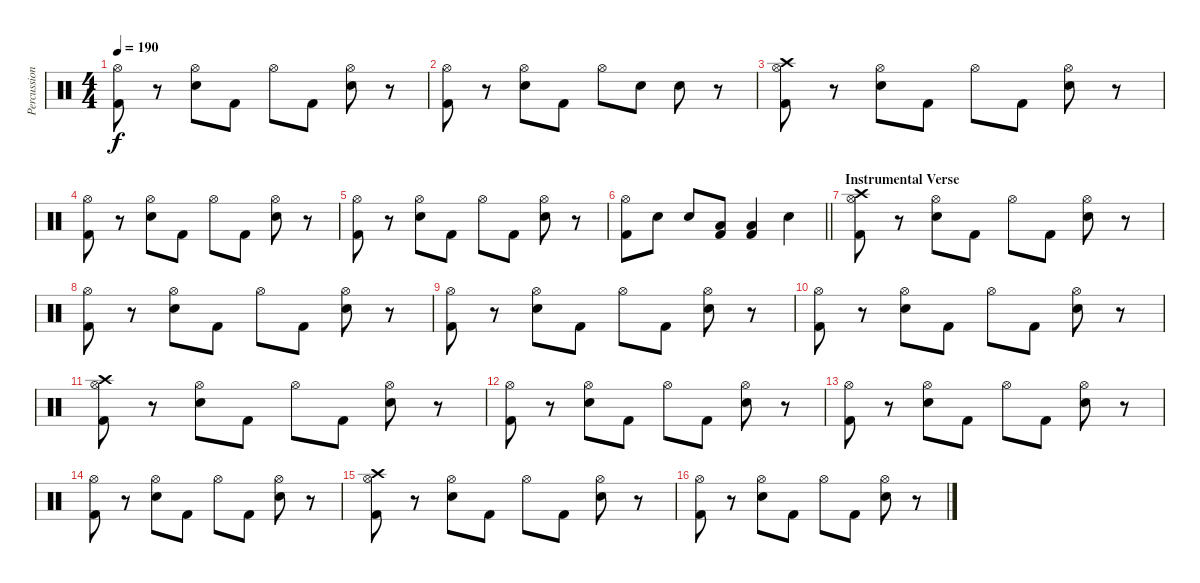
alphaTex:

\track ("Percussion" "Percussion") {instrument percussion}
\staff {score}
\articulation defaults
\ts (4 4)
\tempo 190
\clef neutral
\ks c
("Hi-Hat (open)" "Kick (hit) 2").8{dy f} r.8 ("Hi-Hat (open)" "Snare (hit) 2").8 "Kick (hit) 2".8 "Hi-Hat (open)".8 "Kick (hit) 2".8 ("Hi-Hat (open)" "Snare (hit) 2").8 r.8 |
("Hi-Hat (open)" "Kick (hit) 2").8 r.8 ("Hi-Hat (open)" "Snare (hit) 2").8 "Kick (hit) 2".8 "Hi-Hat (open)".8 "Snare (hit) 2".8 "Snare (hit) 2".8 r.8 |
("Hi-Hat (open)" "Crash high (hit)" "Kick (hit) 2").8 r.8 ("Hi-Hat (open)" "Snare (hit) 2").8 "Kick (hit) 2".8 "Hi-Hat (open)".8 "Kick (hit) 2".8 ("Hi-Hat (open)" "Snare (hit) 2").8 r.8 |
("Hi-Hat (open)" "Kick (hit) 2").8 r.8 ("Hi-Hat (open)" "Snare (hit) 2").8 "Kick (hit) 2".8 "Hi-Hat (open)".8 "Kick (hit) 2".8 ("Hi-Hat (open)" "Snare (hit) 2").8 r.8 |
("Hi-Hat (open)" "Kick (hit) 2").8 r.8 ("Hi-Hat (open)" "Snare (hit) 2").8 "Kick (hit) 2".8 "Hi-Hat (open)".8 "Kick (hit) 2".8 ("Hi-Hat (open)" "Snare (hit) 2").8 r.8 |
\barLineRight lightlight
("Kick (hit) 2" "Hi-Hat (open)").8 "Snare (hit) 2".8 "Snare (hit) 2".8 ("Low Tom (hit)" "Kick (hit) 2").8 ("Kick (hit) 2" "Low Tom (hit)").4 "Snare (hit) 2".4 |
\section ("" "Instrumental Verse")
("Hi-Hat (open)" "Crash high (hit)" "Kick (hit) 2").8 r.8 ("Hi-Hat (open)" "Snare (hit) 2").8 "Kick (hit) 2".8 "Hi-Hat (open)".8 "Kick (hit) 2".8 ("Hi-Hat (open)" "Snare (hit) 2").8 r.8 |
("Hi-Hat (open)" "Kick (hit) 2").8 r.8 ("Hi-Hat (open)" "Snare (hit) 2").8 "Kick (hit) 2".8 "Hi-Hat (open)".8 "Kick (hit) 2".8 ("Hi-Hat (open)" "Snare (hit) 2").8 r.8 |
("Hi-Hat (open)" "Kick (hit) 2").8 r.8 ("Hi-Hat (open)" "Snare (hit) 2").8 "Kick (hit) 2".8 "Hi-Hat (open)".8 "Kick (hit) 2".8 ("Hi-Hat (open)" "Snare (hit) 2").8 r.8 |
("Hi-Hat (open)" "Kick (hit) 2").8 r.8 ("Hi-Hat (open)" "Snare (hit) 2").8 "Kick (hit) 2".8 "Hi-Hat (open)".8 "Kick (hit) 2".8 ("Hi-Hat (open)" "Snare (hit) 2").8 r.8 |
("Hi-Hat (open)" "Crash high (hit)" "Kick (hit) 2").8 r.8 ("Hi-Hat (open)" "Snare (hit) 2").8 "Kick (hit) 2".8 "Hi-Hat (open)".8 "Kick (hit) 2".8 ("Hi-Hat (open)" "Snare (hit) 2").8 r.8 |
("Hi-Hat (open)" "Kick (hit) 2").8 r.8 ("Hi-Hat (open)" "Snare (hit) 2").8 "Kick (hit) 2".8 "Hi-Hat (open)".8 "Kick (hit) 2".8 ("Hi-Hat (open)" "Snare (hit) 2").8 r.8 |
("Hi-Hat (open)" "Kick (hit) 2").8 r.8 ("Hi-Hat (open)" "Snare (hit) 2").8 "Kick (hit) 2".8 "Hi-Hat (open)".8 "Kick (hit) 2".8 ("Hi-Hat (open)" "Snare (hit) 2").8 r.8 |
("Hi-Hat (open)" "Kick (hit) 2").8 r.8 ("Hi-Hat (open)" "Snare (hit) 2").8 "Kick (hit) 2".8 "Hi-Hat (open)".8 "Kick (hit) 2".8 ("Hi-Hat (open)" "Snare (hit) 2").8 r.8 |
("Hi-Hat (open)" "Crash high (hit)" "Kick (hit) 2").8 r.8 ("Hi-Hat (open)" "Snare (hit) 2").8 "Kick (hit) 2".8 "Hi-Hat (open)".8 "Kick (hit) 2".8 ("Hi-Hat (open)" "Snare (hit) 2").8 r.8 |
("Hi-Hat (open)" "Kick (hit) 2").8 r.8 ("Hi-Hat (open)" "Snare (hit) 2").8 "Kick (hit) 2".8 "Hi-Hat (open)".8 "Kick (hit) 2".8 ("Hi-Hat (open)" "Snare (hit) 2").8 r.8
